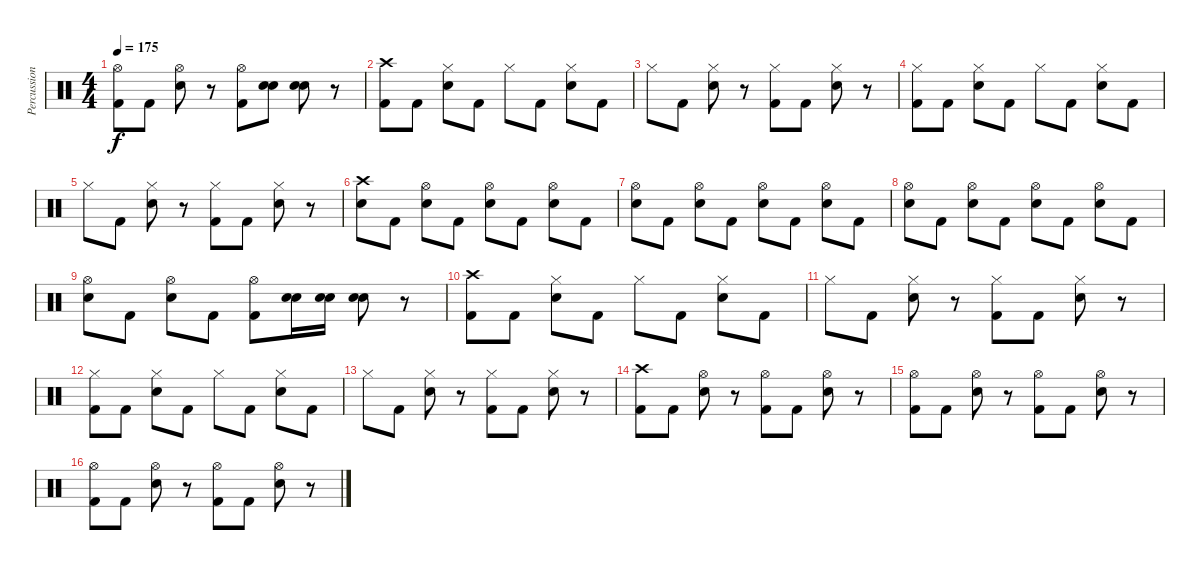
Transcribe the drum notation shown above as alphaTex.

\track ("Percussion" "Percussion") {instrument percussion}
\staff {score}
\articulation defaults
\ts (4 4)
\tempo 175
\clef neutral
\ks c
("Hi-Hat (open)" "Kick (hit) 2").8{dy f} "Kick (hit) 2".8 ("Hi-Hat (open)" "Snare (hit) 2").8 r.8 ("Hi-Hat (open)" "Kick (hit) 2").8 ("Snare (hit) 2" "Electric Snare (hit)").8 ("Snare (hit) 2" "Electric Snare (hit)").8 r.8 |
("Crash high (hit)" "Kick (hit) 2").8 "Kick (hit) 2".8 ("Hi-Hat (closed)" "Snare (hit) 2").8 "Kick (hit) 2".8 "Hi-Hat (closed)".8 "Kick (hit) 2".8 ("Hi-Hat (closed)" "Snare (hit) 2").8 "Kick (hit) 2".8 |
"Hi-Hat (closed)".8 "Kick (hit) 2".8 ("Hi-Hat (closed)" "Snare (hit) 2").8 r.8 ("Hi-Hat (closed)" "Kick (hit) 2").8 "Kick (hit) 2".8 ("Hi-Hat (closed)" "Snare (hit) 2").8 r.8 |
("Hi-Hat (closed)" "Kick (hit) 2").8 "Kick (hit) 2".8 ("Hi-Hat (closed)" "Snare (hit) 2").8 "Kick (hit) 2".8 "Hi-Hat (closed)".8 "Kick (hit) 2".8 ("Hi-Hat (closed)" "Snare (hit) 2").8 "Kick (hit) 2".8 |
"Hi-Hat (closed)".8 "Kick (hit) 2".8 ("Hi-Hat (closed)" "Snare (hit) 2").8 r.8 ("Hi-Hat (closed)" "Kick (hit) 2").8 "Kick (hit) 2".8 ("Hi-Hat (closed)" "Snare (hit) 2").8 r.8 |
("Crash high (hit)" "Snare (hit) 2").8 "Kick (hit) 2".8 ("Hi-Hat (open)" "Snare (hit) 2").8 "Kick (hit) 2".8 ("Hi-Hat (open)" "Snare (hit) 2").8 "Kick (hit) 2".8 ("Hi-Hat (open)" "Snare (hit) 2").8 "Kick (hit) 2".8 |
("Hi-Hat (open)" "Snare (hit) 2").8 "Kick (hit) 2".8 ("Hi-Hat (open)" "Snare (hit) 2").8 "Kick (hit) 2".8 ("Hi-Hat (open)" "Snare (hit) 2").8 "Kick (hit) 2".8 ("Hi-Hat (open)" "Snare (hit) 2").8 "Kick (hit) 2".8 |
("Hi-Hat (open)" "Snare (hit) 2").8 "Kick (hit) 2".8 ("Hi-Hat (open)" "Snare (hit) 2").8 "Kick (hit) 2".8 ("Hi-Hat (open)" "Snare (hit) 2").8 "Kick (hit) 2".8 ("Hi-Hat (open)" "Snare (hit) 2").8 "Kick (hit) 2".8 |
("Hi-Hat (open)" "Snare (hit) 2").8 "Kick (hit) 2".8 ("Hi-Hat (open)" "Snare (hit) 2").8 "Kick (hit) 2".8 ("Hi-Hat (open)" "Kick (hit) 2").8 ("Snare (hit) 2" "Electric Snare (hit)").16 ("Snare (hit) 2" "Electric Snare (hit)").16 ("Snare (hit) 2" "Electric Snare (hit)").8 r.8 |
("Crash high (hit)" "Kick (hit) 2").8 "Kick (hit) 2".8 ("Hi-Hat (closed)" "Snare (hit) 2").8 "Kick (hit) 2".8 "Hi-Hat (closed)".8 "Kick (hit) 2".8 ("Hi-Hat (closed)" "Snare (hit) 2").8 "Kick (hit) 2".8 |
"Hi-Hat (closed)".8 "Kick (hit) 2".8 ("Hi-Hat (closed)" "Snare (hit) 2").8 r.8 ("Hi-Hat (closed)" "Kick (hit) 2").8 "Kick (hit) 2".8 ("Hi-Hat (closed)" "Snare (hit) 2").8 r.8 |
("Hi-Hat (closed)" "Kick (hit) 2").8 "Kick (hit) 2".8 ("Hi-Hat (closed)" "Snare (hit) 2").8 "Kick (hit) 2".8 "Hi-Hat (closed)".8 "Kick (hit) 2".8 ("Hi-Hat (closed)" "Snare (hit) 2").8 "Kick (hit) 2".8 |
"Hi-Hat (closed)".8 "Kick (hit) 2".8 ("Hi-Hat (closed)" "Snare (hit) 2").8 r.8 ("Hi-Hat (closed)" "Kick (hit) 2").8 "Kick (hit) 2".8 ("Hi-Hat (closed)" "Snare (hit) 2").8 r.8 |
("Crash high (hit)" "Kick (hit) 2").8 "Kick (hit) 2".8 ("Hi-Hat (open)" "Snare (hit) 2").8 r.8 ("Hi-Hat (open)" "Kick (hit) 2").8 "Kick (hit) 2".8 ("Hi-Hat (open)" "Snare (hit) 2").8 r.8 |
("Hi-Hat (open)" "Kick (hit) 2").8 "Kick (hit) 2".8 ("Hi-Hat (open)" "Snare (hit) 2").8 r.8 ("Hi-Hat (open)" "Kick (hit) 2").8 "Kick (hit) 2".8 ("Hi-Hat (open)" "Snare (hit) 2").8 r.8 |
("Hi-Hat (open)" "Kick (hit) 2").8 "Kick (hit) 2".8 ("Hi-Hat (open)" "Snare (hit) 2").8 r.8 ("Hi-Hat (open)" "Kick (hit) 2").8 "Kick (hit) 2".8 ("Hi-Hat (open)" "Snare (hit) 2").8 r.8
